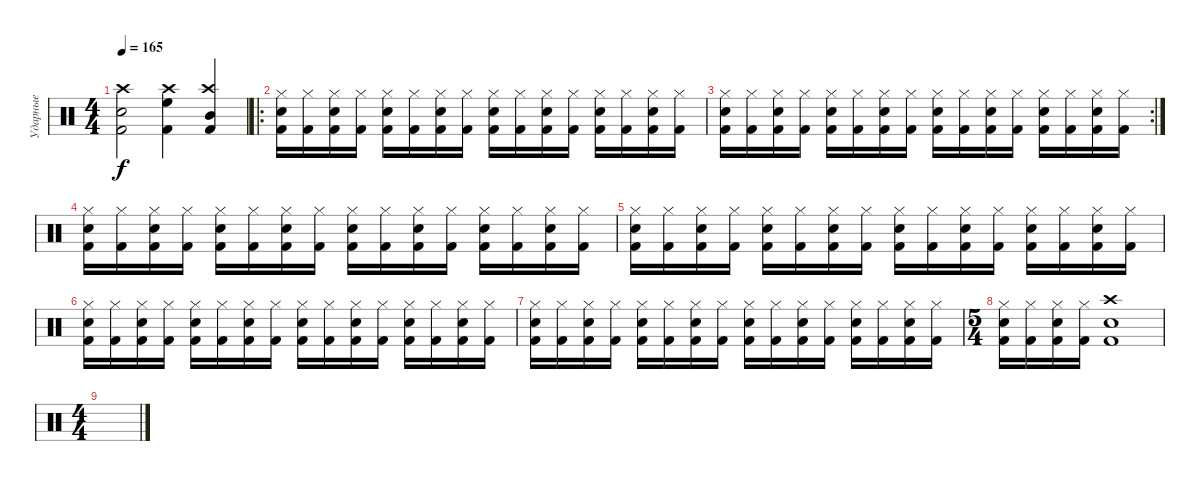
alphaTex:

\track ("Ударные" "Ударные") {instrument percussion}
\staff
\articulation defaults
\ts (4 4)
\tempo 165
\clef neutral
\ks c
("Kick (hit) 2" "Snare (hit) 2" "Crash high (hit)").2{dy f} ("Kick (hit) 2" "High Floor Tom (hit)" "Crash high (hit)").4 ("Kick (hit) 2" "Mid Tom (hit)" "Crash high (hit)").4 |
\ro
("Kick (hit) 2" "Snare (hit) 2" "Hi-Hat (closed)").16 ("Kick (hit) 2" "Hi-Hat (closed)").16 ("Kick (hit) 2" "Snare (hit) 2" "Hi-Hat (closed)").16 ("Kick (hit) 2" "Hi-Hat (closed)").16 ("Kick (hit) 2" "Snare (hit) 2" "Hi-Hat (closed)").16 ("Kick (hit) 2" "Hi-Hat (closed)").16 ("Kick (hit) 2" "Snare (hit) 2" "Hi-Hat (closed)").16 ("Kick (hit) 2" "Hi-Hat (closed)").16 ("Kick (hit) 2" "Snare (hit) 2" "Hi-Hat (closed)").16 ("Kick (hit) 2" "Hi-Hat (closed)").16 ("Kick (hit) 2" "Snare (hit) 2" "Hi-Hat (closed)").16 ("Kick (hit) 2" "Hi-Hat (closed)").16 ("Kick (hit) 2" "Snare (hit) 2" "Hi-Hat (closed)").16 ("Kick (hit) 2" "Hi-Hat (closed)").16 ("Kick (hit) 2" "Snare (hit) 2" "Hi-Hat (closed)").16 ("Kick (hit) 2" "Hi-Hat (closed)").16 |
\rc 2
("Kick (hit) 2" "Snare (hit) 2" "Hi-Hat (closed)").16 ("Kick (hit) 2" "Hi-Hat (closed)").16 ("Kick (hit) 2" "Snare (hit) 2" "Hi-Hat (closed)").16 ("Kick (hit) 2" "Hi-Hat (closed)").16 ("Kick (hit) 2" "Snare (hit) 2" "Hi-Hat (closed)").16 ("Kick (hit) 2" "Hi-Hat (closed)").16 ("Kick (hit) 2" "Snare (hit) 2" "Hi-Hat (closed)").16 ("Kick (hit) 2" "Hi-Hat (closed)").16 ("Kick (hit) 2" "Snare (hit) 2" "Hi-Hat (closed)").16 ("Kick (hit) 2" "Hi-Hat (closed)").16 ("Kick (hit) 2" "Snare (hit) 2" "Hi-Hat (closed)").16 ("Kick (hit) 2" "Hi-Hat (closed)").16 ("Kick (hit) 2" "Snare (hit) 2" "Hi-Hat (closed)").16 ("Kick (hit) 2" "Hi-Hat (closed)").16 ("Kick (hit) 2" "Snare (hit) 2" "Hi-Hat (closed)").16 ("Kick (hit) 2" "Hi-Hat (closed)").16 |
("Kick (hit) 2" "Snare (hit) 2" "Hi-Hat (closed)").16 ("Kick (hit) 2" "Hi-Hat (closed)").16 ("Kick (hit) 2" "Snare (hit) 2" "Hi-Hat (closed)").16 ("Kick (hit) 2" "Hi-Hat (closed)").16 ("Kick (hit) 2" "Snare (hit) 2" "Hi-Hat (closed)").16 ("Kick (hit) 2" "Hi-Hat (closed)").16 ("Kick (hit) 2" "Snare (hit) 2" "Hi-Hat (closed)").16 ("Kick (hit) 2" "Hi-Hat (closed)").16 ("Kick (hit) 2" "Snare (hit) 2" "Hi-Hat (closed)").16 ("Kick (hit) 2" "Hi-Hat (closed)").16 ("Kick (hit) 2" "Snare (hit) 2" "Hi-Hat (closed)").16 ("Kick (hit) 2" "Hi-Hat (closed)").16 ("Kick (hit) 2" "Snare (hit) 2" "Hi-Hat (closed)").16 ("Kick (hit) 2" "Hi-Hat (closed)").16 ("Kick (hit) 2" "Snare (hit) 2" "Hi-Hat (closed)").16 ("Kick (hit) 2" "Hi-Hat (closed)").16 |
("Kick (hit) 2" "Snare (hit) 2" "Hi-Hat (closed)").16 ("Kick (hit) 2" "Hi-Hat (closed)").16 ("Kick (hit) 2" "Snare (hit) 2" "Hi-Hat (closed)").16 ("Kick (hit) 2" "Hi-Hat (closed)").16 ("Kick (hit) 2" "Snare (hit) 2" "Hi-Hat (closed)").16 ("Kick (hit) 2" "Hi-Hat (closed)").16 ("Kick (hit) 2" "Snare (hit) 2" "Hi-Hat (closed)").16 ("Kick (hit) 2" "Hi-Hat (closed)").16 ("Kick (hit) 2" "Snare (hit) 2" "Hi-Hat (closed)").16 ("Kick (hit) 2" "Hi-Hat (closed)").16 ("Kick (hit) 2" "Snare (hit) 2" "Hi-Hat (closed)").16 ("Kick (hit) 2" "Hi-Hat (closed)").16 ("Kick (hit) 2" "Snare (hit) 2" "Hi-Hat (closed)").16 ("Kick (hit) 2" "Hi-Hat (closed)").16 ("Kick (hit) 2" "Snare (hit) 2" "Hi-Hat (closed)").16 ("Kick (hit) 2" "Hi-Hat (closed)").16 |
("Kick (hit) 2" "Snare (hit) 2" "Hi-Hat (closed)").16 ("Kick (hit) 2" "Hi-Hat (closed)").16 ("Kick (hit) 2" "Snare (hit) 2" "Hi-Hat (closed)").16 ("Kick (hit) 2" "Hi-Hat (closed)").16 ("Kick (hit) 2" "Snare (hit) 2" "Hi-Hat (closed)").16 ("Kick (hit) 2" "Hi-Hat (closed)").16 ("Kick (hit) 2" "Snare (hit) 2" "Hi-Hat (closed)").16 ("Kick (hit) 2" "Hi-Hat (closed)").16 ("Kick (hit) 2" "Snare (hit) 2" "Hi-Hat (closed)").16 ("Kick (hit) 2" "Hi-Hat (closed)").16 ("Kick (hit) 2" "Snare (hit) 2" "Hi-Hat (closed)").16 ("Kick (hit) 2" "Hi-Hat (closed)").16 ("Kick (hit) 2" "Snare (hit) 2" "Hi-Hat (closed)").16 ("Kick (hit) 2" "Hi-Hat (closed)").16 ("Kick (hit) 2" "Snare (hit) 2" "Hi-Hat (closed)").16 ("Kick (hit) 2" "Hi-Hat (closed)").16 |
("Kick (hit) 2" "Snare (hit) 2" "Hi-Hat (closed)").16 ("Kick (hit) 2" "Hi-Hat (closed)").16 ("Kick (hit) 2" "Snare (hit) 2" "Hi-Hat (closed)").16 ("Kick (hit) 2" "Hi-Hat (closed)").16 ("Kick (hit) 2" "Snare (hit) 2" "Hi-Hat (closed)").16 ("Kick (hit) 2" "Hi-Hat (closed)").16 ("Kick (hit) 2" "Snare (hit) 2" "Hi-Hat (closed)").16 ("Kick (hit) 2" "Hi-Hat (closed)").16 ("Kick (hit) 2" "Snare (hit) 2" "Hi-Hat (closed)").16 ("Kick (hit) 2" "Hi-Hat (closed)").16 ("Kick (hit) 2" "Snare (hit) 2" "Hi-Hat (closed)").16 ("Kick (hit) 2" "Hi-Hat (closed)").16 ("Kick (hit) 2" "Snare (hit) 2" "Hi-Hat (closed)").16 ("Kick (hit) 2" "Hi-Hat (closed)").16 ("Kick (hit) 2" "Snare (hit) 2" "Hi-Hat (closed)").16 ("Kick (hit) 2" "Hi-Hat (closed)").16 |
\ts (5 4)
("Kick (hit) 2" "Snare (hit) 2" "Hi-Hat (closed)").16 ("Kick (hit) 2" "Hi-Hat (closed)").16 ("Kick (hit) 2" "Snare (hit) 2" "Hi-Hat (closed)").16 ("Kick (hit) 2" "Hi-Hat (closed)").16 ("Crash high (hit)" "Snare (hit) 2" "Kick (hit) 2").1 |
\ts (4 4)
